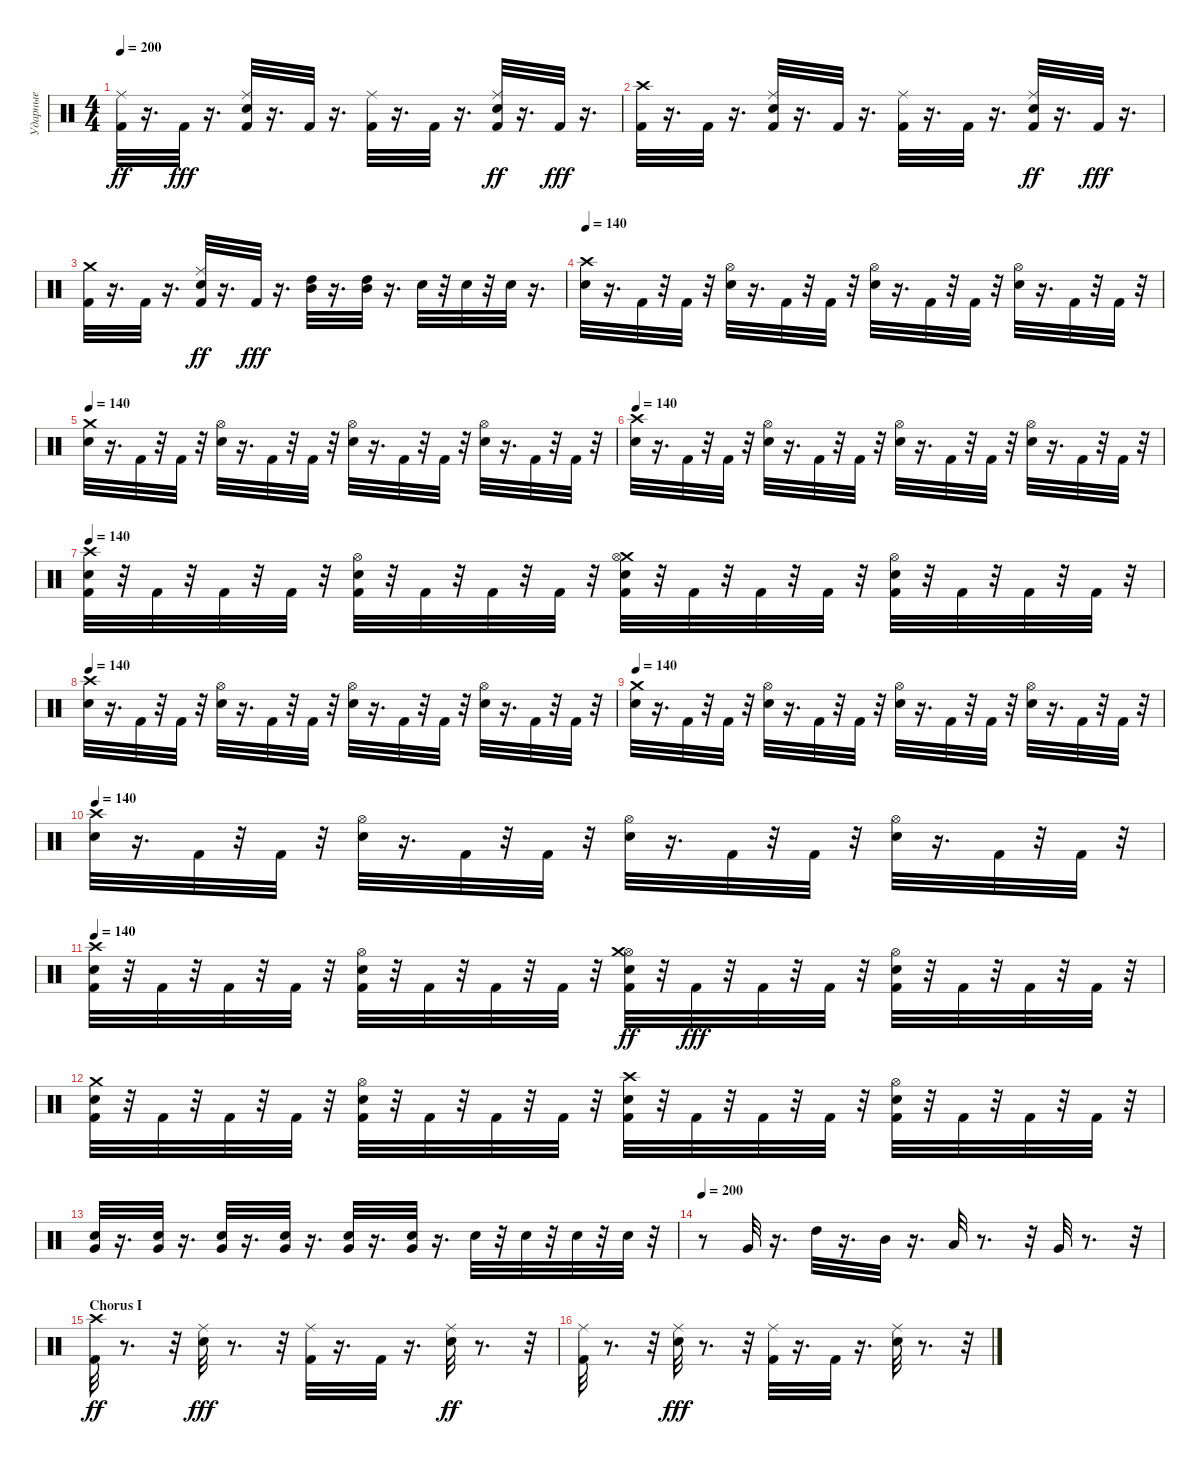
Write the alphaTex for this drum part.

\track ("Ударные" "Ударные") {instrument percussion}
\staff {score}
\articulation defaults
\ts (4 4)
\tempo 200
\clef neutral
\ks c
("Kick (hit) 2" "Ride (middle)").32{dy ff} r.16{d} "Kick (hit) 2".32{dy fff} r.16{d} ("Kick (hit) 2" "Ride (middle)" "Snare (hit) 2").32 r.16{d} "Kick (hit) 2".32 r.16{d} ("Ride (middle)" "Kick (hit) 2").32 r.16{d} "Kick (hit) 2".32 r.16{d} ("Kick (hit) 2" "Snare (hit) 2" "Ride (middle)").32{dy ff} r.16{d} "Kick (hit) 2".32{dy fff} r.16{d} |
("Crash high (hit)" "Kick (hit) 2").32 r.16{d} "Kick (hit) 2".32 r.16{d} ("Kick (hit) 2" "Ride (middle)" "Snare (hit) 2").32 r.16{d} "Kick (hit) 2".32 r.16{d} ("Ride (middle)" "Kick (hit) 2").32 r.16{d} "Kick (hit) 2".32 r.16{d} ("Kick (hit) 2" "Snare (hit) 2" "Ride (middle)").32{dy ff} r.16{d} "Kick (hit) 2".32{dy fff} r.16{d} |
("Crash medium (hit)" "Kick (hit) 2").32 r.16{d} "Kick (hit) 2".32 r.16{d} ("Kick (hit) 2" "Snare (hit) 2" "Ride (middle)").32{dy ff} r.16{d} "Kick (hit) 2".32{dy fff} r.16{d} ("High Tom (hit)" "Mid Tom (hit)").32 r.16{d} ("Mid Tom (hit)" "High Tom (hit)").32 r.16{d} "Snare (hit) 2".32 r.32 "Snare (hit) 2".32 r.32 "Snare (hit) 2".32 r.16{d} |
\tempo 140
("Crash high (hit)" "Snare (hit) 2").32 r.16{d} "Kick (hit) 2".32 r.32 "Kick (hit) 2".32 r.32 ("Snare (hit) 2" "Hi-Hat (open)").32 r.16{d} "Kick (hit) 2".32 r.32 "Kick (hit) 2".32 r.32 ("Snare (hit) 2" "Hi-Hat (open)").32 r.16{d} "Kick (hit) 2".32 r.32 "Kick (hit) 2".32 r.32 ("Snare (hit) 2" "Hi-Hat (open)").32 r.16{d} "Kick (hit) 2".32 r.32 "Kick (hit) 2".32 r.32 |
\tempo 140
("Crash medium (hit)" "Snare (hit) 2").32 r.16{d} "Kick (hit) 2".32 r.32 "Kick (hit) 2".32 r.32 ("Snare (hit) 2" "Hi-Hat (open)").32 r.16{d} "Kick (hit) 2".32 r.32 "Kick (hit) 2".32 r.32 ("Snare (hit) 2" "Hi-Hat (open)").32 r.16{d} "Kick (hit) 2".32 r.32 "Kick (hit) 2".32 r.32 ("Snare (hit) 2" "Hi-Hat (open)").32 r.16{d} "Kick (hit) 2".32 r.32 "Kick (hit) 2".32 r.32 |
\tempo 140
("Crash high (hit)" "Snare (hit) 2").32 r.16{d} "Kick (hit) 2".32 r.32 "Kick (hit) 2".32 r.32 ("Snare (hit) 2" "Hi-Hat (open)").32 r.16{d} "Kick (hit) 2".32 r.32 "Kick (hit) 2".32 r.32 ("Hi-Hat (open)" "Snare (hit) 2").32 r.16{d} "Kick (hit) 2".32 r.32 "Kick (hit) 2".32 r.32 ("Snare (hit) 2" "Hi-Hat (open)").32 r.16{d} "Kick (hit) 2".32 r.32 "Kick (hit) 2".32 r.32 |
\tempo 140
("Kick (hit) 2" "Crash high (hit)" "Snare (hit) 2").32 r.32 "Kick (hit) 2".32 r.32 "Kick (hit) 2".32 r.32 "Kick (hit) 2".32 r.32 ("Kick (hit) 2" "Hi-Hat (open)" "Snare (hit) 2").32 r.32 "Kick (hit) 2".32 r.32 "Kick (hit) 2".32 r.32 "Kick (hit) 2".32 r.32 ("Snare (hit) 2" "Crash medium (hit)" "Kick (hit) 2" "Hi-Hat (open)").32 r.32 "Kick (hit) 2".32 r.32 "Kick (hit) 2".32 r.32 "Kick (hit) 2".32 r.32 ("Snare (hit) 2" "Hi-Hat (open)" "Kick (hit) 2").32 r.32 "Kick (hit) 2".32 r.32 "Kick (hit) 2".32 r.32 "Kick (hit) 2".32 r.32 |
\tempo 140
("Crash high (hit)" "Snare (hit) 2").32 r.16{d} "Kick (hit) 2".32 r.32 "Kick (hit) 2".32 r.32 ("Hi-Hat (open)" "Snare (hit) 2").32 r.16{d} "Kick (hit) 2".32 r.32 "Kick (hit) 2".32 r.32 ("Snare (hit) 2" "Hi-Hat (open)").32 r.16{d} "Kick (hit) 2".32 r.32 "Kick (hit) 2".32 r.32 ("Snare (hit) 2" "Hi-Hat (open)").32 r.16{d} "Kick (hit) 2".32 r.32 "Kick (hit) 2".32 r.32 |
\tempo 140
("Crash medium (hit)" "Snare (hit) 2").32 r.16{d} "Kick (hit) 2".32 r.32 "Kick (hit) 2".32 r.32 ("Hi-Hat (open)" "Snare (hit) 2").32 r.16{d} "Kick (hit) 2".32 r.32 "Kick (hit) 2".32 r.32 ("Snare (hit) 2" "Hi-Hat (open)").32 r.16{d} "Kick (hit) 2".32 r.32 "Kick (hit) 2".32 r.32 ("Hi-Hat (open)" "Snare (hit) 2").32 r.16{d} "Kick (hit) 2".32 r.32 "Kick (hit) 2".32 r.32 |
\tempo 140
("Crash high (hit)" "Snare (hit) 2").32 r.16{d} "Kick (hit) 2".32 r.32 "Kick (hit) 2".32 r.32 ("Snare (hit) 2" "Hi-Hat (open)").32 r.16{d} "Kick (hit) 2".32 r.32 "Kick (hit) 2".32 r.32 ("Hi-Hat (open)" "Snare (hit) 2").32 r.16{d} "Kick (hit) 2".32 r.32 "Kick (hit) 2".32 r.32 ("Snare (hit) 2" "Hi-Hat (open)").32 r.16{d} "Kick (hit) 2".32 r.32 "Kick (hit) 2".32 r.32 |
\tempo 140
("Crash high (hit)" "Snare (hit) 2" "Kick (hit) 2").32 r.32 "Kick (hit) 2".32 r.32 "Kick (hit) 2".32 r.32 "Kick (hit) 2".32 r.32 ("Kick (hit) 2" "Hi-Hat (open)" "Snare (hit) 2").32 r.32 "Kick (hit) 2".32 r.32 "Kick (hit) 2".32 r.32 "Kick (hit) 2".32 r.32 ("Hi-Hat (open)" "Snare (hit) 2" "Kick (hit) 2" "Crash medium (hit)").32{dy ff} r.32 "Kick (hit) 2".32{dy fff} r.32 "Kick (hit) 2".32 r.32 "Kick (hit) 2".32 r.32 ("Kick (hit) 2" "Hi-Hat (open)" "Snare (hit) 2").32 r.32 "Kick (hit) 2".32 r.32 "Kick (hit) 2".32 r.32 "Kick (hit) 2".32 r.32 |
("Kick (hit) 2" "Crash medium (hit)" "Snare (hit) 2").32 r.32 "Kick (hit) 2".32 r.32 "Kick (hit) 2".32 r.32 "Kick (hit) 2".32 r.32 ("Kick (hit) 2" "Snare (hit) 2" "Hi-Hat (open)").32 r.32 "Kick (hit) 2".32 r.32 "Kick (hit) 2".32 r.32 "Kick (hit) 2".32 r.32 ("Crash high (hit)" "Kick (hit) 2" "Snare (hit) 2").32 r.32 "Kick (hit) 2".32 r.32 "Kick (hit) 2".32 r.32 "Kick (hit) 2".32 r.32 ("Kick (hit) 2" "Snare (hit) 2" "Hi-Hat (open)").32 r.32 "Kick (hit) 2".32 r.32 "Kick (hit) 2".32 r.32 "Kick (hit) 2".32 r.32 |
("Snare (hit) 2" "Very Low Tom (hit)").32 r.16{d} ("Snare (hit) 2" "Very Low Tom (hit)").32 r.16{d} ("Snare (hit) 2" "Very Low Tom (hit)").32 r.16{d} ("Snare (hit) 2" "Very Low Tom (hit)").32 r.16{d} ("Very Low Tom (hit)" "Snare (hit) 2").32 r.16{d} ("Very Low Tom (hit)" "Snare (hit) 2").32 r.16{d} "Snare (hit) 2".32 r.32 "Snare (hit) 2".32 r.32 "Snare (hit) 2".32 r.32 "Snare (hit) 2".32 r.32 |
\tempo 200
r.8 "Very Low Tom (hit)".32 r.16{d} "High Tom (hit)".32 r.16{d} "Mid Tom (hit)".32 r.16{d} "Low Tom (hit)".32 r.8{d} r.32 "Very Low Tom (hit)".32 r.8{d} r.32 |
\section ("" "Chorus I")
("Kick (hit) 2" "Crash high (hit)").32{dy ff} r.8{d} r.32 ("Ride (middle)" "Snare (hit) 2").32{dy fff} r.8{d} r.32 ("Ride (middle)" "Kick (hit) 2").32 r.16{d} "Kick (hit) 2".32 r.16{d} ("Snare (hit) 2" "Ride (middle)").32{dy ff} r.8{d} r.32 |
("Kick (hit) 2" "Ride (middle)").32 r.8{d} r.32 ("Ride (middle)" "Snare (hit) 2").32{dy fff} r.8{d} r.32 ("Ride (middle)" "Kick (hit) 2").32 r.16{d} "Kick (hit) 2".32 r.16{d} ("Ride (middle)" "Snare (hit) 2").32 r.8{d} r.32
